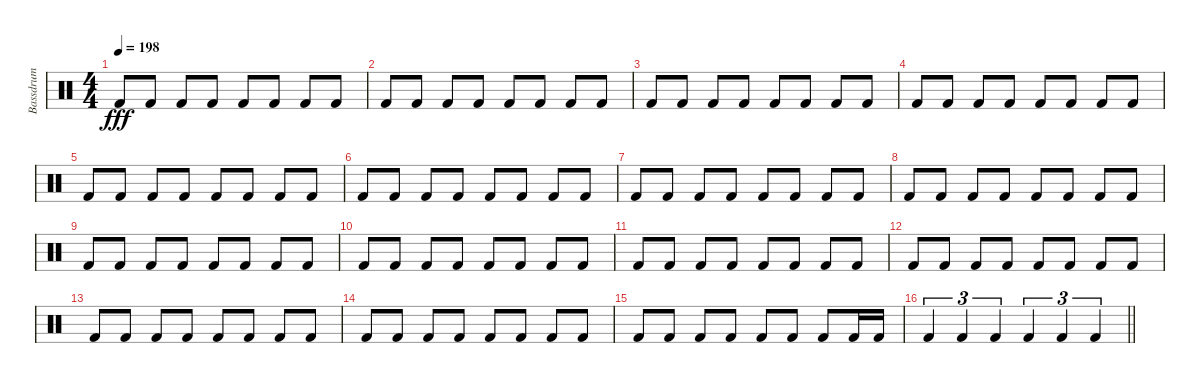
\track ("Bassdrum" "Bassdrum") {instrument percussion}
\staff {score}
\articulation defaults
\ts (4 4)
\section ("" "")
\tempo 198
\clef neutral
\ks c "Kick (hit) 2".8{dy fff} "Kick (hit) 2".8 "Kick (hit) 2".8 "Kick (hit) 2".8 "Kick (hit) 2".8 "Kick (hit) 2".8 "Kick (hit) 2".8 "Kick (hit) 2".8
|
"Kick (hit) 2".8 "Kick (hit) 2".8 "Kick (hit) 2".8 "Kick (hit) 2".8 "Kick (hit) 2".8 "Kick (hit) 2".8 "Kick (hit) 2".8 "Kick (hit) 2".8 |
"Kick (hit) 2".8 "Kick (hit) 2".8 "Kick (hit) 2".8 "Kick (hit) 2".8 "Kick (hit) 2".8 "Kick (hit) 2".8 "Kick (hit) 2".8 "Kick (hit) 2".8 |
"Kick (hit) 2".8 "Kick (hit) 2".8 "Kick (hit) 2".8 "Kick (hit) 2".8 "Kick (hit) 2".8 "Kick (hit) 2".8 "Kick (hit) 2".8 "Kick (hit) 2".8 |
"Kick (hit) 2".8 "Kick (hit) 2".8 "Kick (hit) 2".8 "Kick (hit) 2".8 "Kick (hit) 2".8 "Kick (hit) 2".8 "Kick (hit) 2".8 "Kick (hit) 2".8 |
"Kick (hit) 2".8 "Kick (hit) 2".8 "Kick (hit) 2".8 "Kick (hit) 2".8 "Kick (hit) 2".8 "Kick (hit) 2".8 "Kick (hit) 2".8 "Kick (hit) 2".8 |
"Kick (hit) 2".8 "Kick (hit) 2".8 "Kick (hit) 2".8 "Kick (hit) 2".8 "Kick (hit) 2".8 "Kick (hit) 2".8 "Kick (hit) 2".8 "Kick (hit) 2".8 |
"Kick (hit) 2".8 "Kick (hit) 2".8 "Kick (hit) 2".8 "Kick (hit) 2".8 "Kick (hit) 2".8 "Kick (hit) 2".8 "Kick (hit) 2".8 "Kick (hit) 2".8 |
"Kick (hit) 2".8 "Kick (hit) 2".8 "Kick (hit) 2".8 "Kick (hit) 2".8 "Kick (hit) 2".8 "Kick (hit) 2".8 "Kick (hit) 2".8 "Kick (hit) 2".8 |
"Kick (hit) 2".8 "Kick (hit) 2".8 "Kick (hit) 2".8 "Kick (hit) 2".8 "Kick (hit) 2".8 "Kick (hit) 2".8 "Kick (hit) 2".8 "Kick (hit) 2".8 |
"Kick (hit) 2".8 "Kick (hit) 2".8 "Kick (hit) 2".8 "Kick (hit) 2".8 "Kick (hit) 2".8 "Kick (hit) 2".8 "Kick (hit) 2".8 "Kick (hit) 2".8 |
"Kick (hit) 2".8 "Kick (hit) 2".8 "Kick (hit) 2".8 "Kick (hit) 2".8 "Kick (hit) 2".8 "Kick (hit) 2".8 "Kick (hit) 2".8 "Kick (hit) 2".8 |
"Kick (hit) 2".8 "Kick (hit) 2".8 "Kick (hit) 2".8 "Kick (hit) 2".8 "Kick (hit) 2".8 "Kick (hit) 2".8 "Kick (hit) 2".8 "Kick (hit) 2".8 |
"Kick (hit) 2".8 "Kick (hit) 2".8 "Kick (hit) 2".8 "Kick (hit) 2".8 "Kick (hit) 2".8 "Kick (hit) 2".8 "Kick (hit) 2".8 "Kick (hit) 2".8 |
"Kick (hit) 2".8 "Kick (hit) 2".8 "Kick (hit) 2".8 "Kick (hit) 2".8 "Kick (hit) 2".8 "Kick (hit) 2".8 "Kick (hit) 2".8 "Kick (hit) 2".16 "Kick (hit) 2".16 |
\barLineRight lightlight "Kick (hit) 2".4{tu (3 2)} "Kick (hit) 2".4{tu (3 2)} "Kick (hit) 2".4{tu (3 2)} "Kick (hit) 2".4{tu (3 2)} "Kick (hit) 2".4{tu (3 2)} "Kick (hit) 2".4{tu (3 2)}
